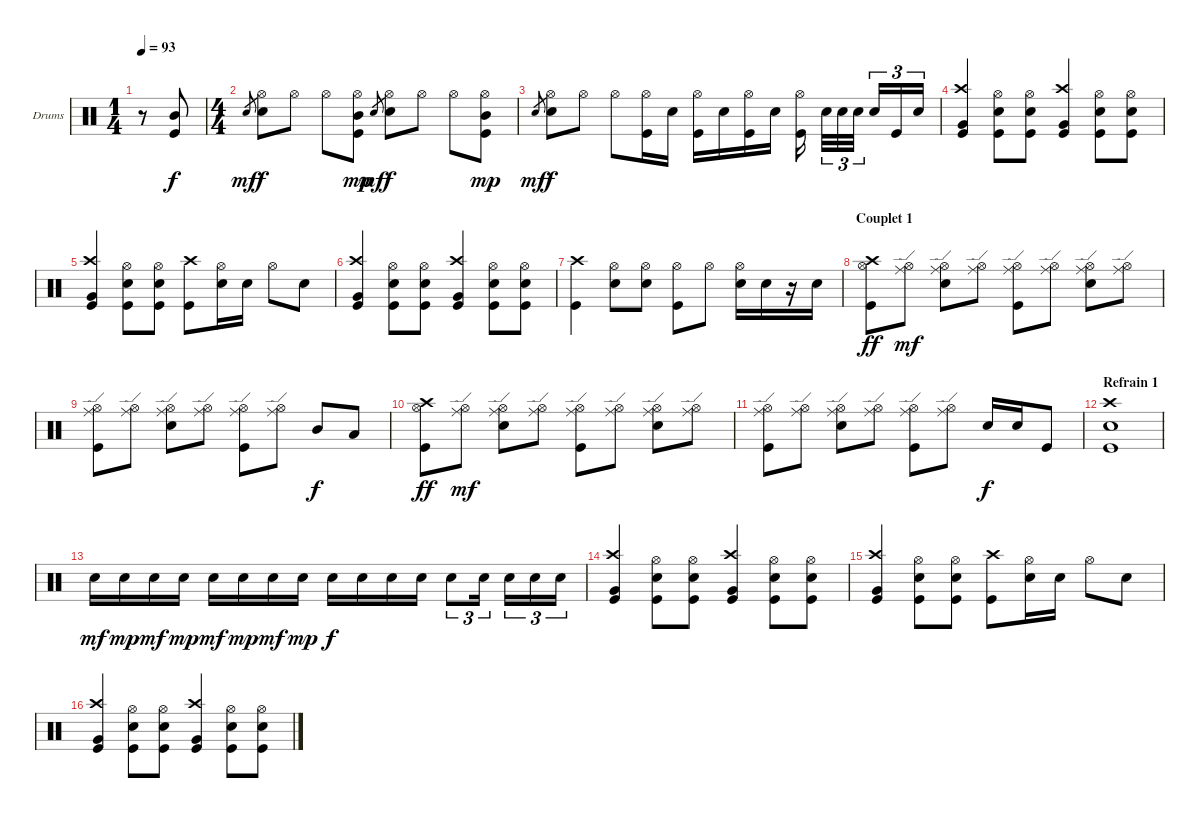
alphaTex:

\bracketExtendMode groupsimilarinstruments
\firstSystemTrackNameOrientation horizontal
\otherSystemsTrackNameOrientation horizontal
\track ("Drumkit" "Drums") {instrument percussion}
\staff {score}
\articulation defaults
\ts (1 4)
\tempo 93
\clef neutral
\ks c
r.8{dy f} ("Mid Tom (hit)" "Kick (hit)").8 |
\ts (4 4)
"Snare (hit) 2".8{gr dy mf} ("Hi-Hat (open)" "Snare (hit) 2").8{dy f} "Hi-Hat (open)".8 "Hi-Hat (open)".8 ("Hi-Hat (open)" "Mid Tom (hit)" "Kick (hit)").8{dy mp} "Snare (hit) 2".8{gr dy mf} ("Hi-Hat (open)" "Snare (hit) 2").8{dy f} "Hi-Hat (open)".8 "Hi-Hat (open)".8 ("Hi-Hat (open)" "Mid Tom (hit)" "Kick (hit)").8{dy mp} |
"Snare (hit) 2".8{gr dy mf} ("Hi-Hat (open)" "Snare (hit) 2").8{dy f} "Hi-Hat (open)".8 "Hi-Hat (open)".8 ("Hi-Hat (open)" "Kick (hit)").16 "Snare (hit) 2".16 ("Hi-Hat (open)" "Kick (hit)").16 "Snare (hit) 2".16 ("Hi-Hat (open)" "Kick (hit)").16 "Snare (hit) 2".16 ("Hi-Hat (open)" "Kick (hit)").16 "Snare (hit) 2".32{tu (3 2)} "Snare (hit) 2".32{tu (3 2)} "Snare (hit) 2".32{tu (3 2)} "Snare (hit) 2".16{tu (3 2)} "Kick (hit)".16{tu (3 2)} "Snare (hit) 2".16{tu (3 2)} |
("Crash high (hit)" "Very Low Tom (hit)" "Kick (hit)").4 ("Hi-Hat (open)" "Snare (hit) 2" "Kick (hit)").8 ("Hi-Hat (open)" "Snare (hit) 2" "Kick (hit)").8 ("Crash high (hit)" "Very Low Tom (hit)" "Kick (hit)").4 ("Hi-Hat (open)" "Snare (hit) 2" "Kick (hit)").8 ("Hi-Hat (open)" "Snare (hit) 2" "Kick (hit)").8 |
("Crash high (hit)" "Very Low Tom (hit)" "Kick (hit)").4 ("Hi-Hat (open)" "Snare (hit) 2" "Kick (hit)").8 ("Hi-Hat (open)" "Snare (hit) 2" "Kick (hit)").8 ("Crash high (hit)" "Kick (hit)").8 ("Hi-Hat (open)" "Snare (hit) 2").16 "Snare (hit) 2".16 "Hi-Hat (open)".8 "Snare (hit) 2".8 |
("Crash high (hit)" "Very Low Tom (hit)" "Kick (hit)").4 ("Hi-Hat (open)" "Snare (hit) 2" "Kick (hit)").8 ("Hi-Hat (open)" "Snare (hit) 2" "Kick (hit)").8 ("Crash high (hit)" "Very Low Tom (hit)" "Kick (hit)").4 ("Hi-Hat (open)" "Snare (hit) 2" "Kick (hit)").8 ("Hi-Hat (open)" "Snare (hit) 2" "Kick (hit)").8 |
("Crash high (hit)" "Kick (hit)").4 ("Hi-Hat (open)" "Snare (hit) 2").8 ("Hi-Hat (open)" "Snare (hit) 2").8 ("Hi-Hat (open)" "Kick (hit)").8 "Hi-Hat (open)".8 ("Hi-Hat (open)" "Snare (hit) 2").16 "Snare (hit) 2".16 r.16 "Snare (hit) 2".16 |
\section ("" "Couplet 1")
("Crash high (hit)" "Hi-Hat (open)" "Kick (hit)").8{dy ff} ("Ride (edge)" "Hi-Hat (open)").8{dy mf} ("Ride (edge)" "Hi-Hat (open)" "Snare (hit) 2").8 ("Ride (edge)" "Hi-Hat (open)").8 ("Ride (edge)" "Hi-Hat (open)" "Kick (hit)").8 ("Ride (edge)" "Hi-Hat (open)").8 ("Ride (edge)" "Hi-Hat (open)" "Snare (hit) 2").8 ("Ride (edge)" "Hi-Hat (open)").8 |
("Ride (edge)" "Hi-Hat (open)" "Kick (hit)").8 ("Ride (edge)" "Hi-Hat (open)").8 ("Ride (edge)" "Hi-Hat (open)" "Snare (hit) 2").8 ("Ride (edge)" "Hi-Hat (open)").8 ("Ride (edge)" "Hi-Hat (open)" "Kick (hit)").8 ("Ride (edge)" "Hi-Hat (open)").8 "Mid Tom (hit)".8{dy f} "Low Tom (hit)".8 |
("Crash high (hit)" "Hi-Hat (open)" "Kick (hit)").8{dy ff} ("Ride (edge)" "Hi-Hat (open)").8{dy mf} ("Ride (edge)" "Hi-Hat (open)" "Snare (hit) 2").8 ("Ride (edge)" "Hi-Hat (open)").8 ("Ride (edge)" "Hi-Hat (open)" "Kick (hit)").8 ("Ride (edge)" "Hi-Hat (open)").8 ("Ride (edge)" "Hi-Hat (open)" "Snare (hit) 2").8 ("Ride (edge)" "Hi-Hat (open)").8 |
("Ride (edge)" "Hi-Hat (open)" "Kick (hit)").8 ("Ride (edge)" "Hi-Hat (open)").8 ("Ride (edge)" "Hi-Hat (open)" "Snare (hit) 2").8 ("Ride (edge)" "Hi-Hat (open)").8 ("Ride (edge)" "Hi-Hat (open)" "Kick (hit)").8 ("Ride (edge)" "Hi-Hat (open)").8 "Snare (hit) 2".16{dy f} "Snare (hit) 2".16 "Kick (hit)".8 |
\section ("" "Refrain 1")
("Crash high (hit)" "Snare (hit) 2" "Kick (hit)").1 |
"Snare (hit) 2".16{dy mf} "Snare (hit) 2".16{dy mp} "Snare (hit) 2".16{dy mf} "Snare (hit) 2".16{dy mp} "Snare (hit) 2".16{dy mf} "Snare (hit) 2".16{dy mp} "Snare (hit) 2".16{dy mf} "Snare (hit) 2".16{dy mp} "Snare (hit) 2".16{dy f} "Snare (hit) 2".16 "Snare (hit) 2".16 "Snare (hit) 2".16 "Snare (hit) 2".8{tu (3 2)} "Snare (hit) 2".16{tu (3 2)} "Snare (hit) 2".16{tu (3 2)} "Snare (hit) 2".16{tu (3 2)} "Snare (hit) 2".16{tu (3 2)} |
("Crash high (hit)" "Very Low Tom (hit)" "Kick (hit)").4 ("Hi-Hat (open)" "Snare (hit) 2" "Kick (hit)").8 ("Hi-Hat (open)" "Snare (hit) 2" "Kick (hit)").8 ("Crash high (hit)" "Very Low Tom (hit)" "Kick (hit)").4 ("Hi-Hat (open)" "Snare (hit) 2" "Kick (hit)").8 ("Hi-Hat (open)" "Snare (hit) 2" "Kick (hit)").8 |
("Crash high (hit)" "Very Low Tom (hit)" "Kick (hit)").4 ("Hi-Hat (open)" "Snare (hit) 2" "Kick (hit)").8 ("Hi-Hat (open)" "Snare (hit) 2" "Kick (hit)").8 ("Crash high (hit)" "Kick (hit)").8 ("Hi-Hat (open)" "Snare (hit) 2").16 "Snare (hit) 2".16 "Hi-Hat (open)".8 "Snare (hit) 2".8 |
("Crash high (hit)" "Very Low Tom (hit)" "Kick (hit)").4 ("Hi-Hat (open)" "Snare (hit) 2" "Kick (hit)").8 ("Hi-Hat (open)" "Snare (hit) 2" "Kick (hit)").8 ("Crash high (hit)" "Very Low Tom (hit)" "Kick (hit)").4 ("Hi-Hat (open)" "Snare (hit) 2" "Kick (hit)").8 ("Hi-Hat (open)" "Snare (hit) 2" "Kick (hit)").8
